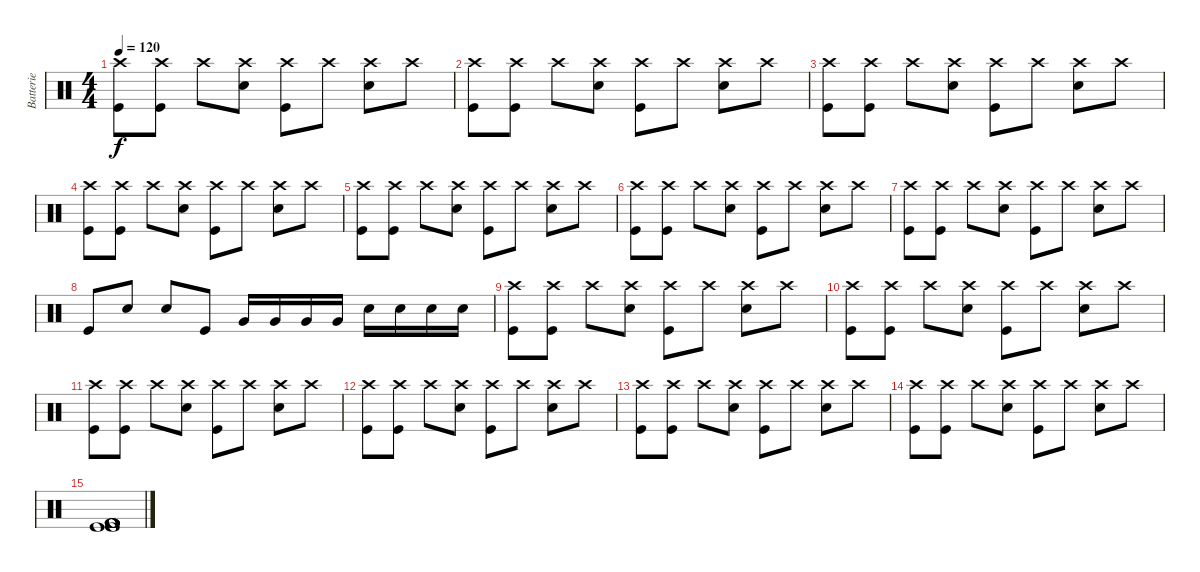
\track ("Batterie" "Batterie") {instrument percussion}
\staff {score}
\articulation defaults
\ts (4 4)
\tempo 120
\clef neutral
\ks c
("Crash high (hit)" "Kick (hit)").8{dy f} ("Crash high (hit)" "Kick (hit)").8 "Crash high (hit)".8 ("Crash high (hit)" "Snare (hit) 2").8 ("Crash high (hit)" "Kick (hit)").8 "Crash high (hit)".8 ("Crash high (hit)" "Snare (hit) 2").8 "Crash high (hit)".8 |
("Crash high (hit)" "Kick (hit)").8 ("Crash high (hit)" "Kick (hit)").8 "Crash high (hit)".8 ("Crash high (hit)" "Snare (hit) 2").8 ("Crash high (hit)" "Kick (hit)").8 "Crash high (hit)".8 ("Crash high (hit)" "Snare (hit) 2").8 "Crash high (hit)".8 |
("Crash high (hit)" "Kick (hit)").8 ("Crash high (hit)" "Kick (hit)").8 "Crash high (hit)".8 ("Crash high (hit)" "Snare (hit) 2").8 ("Crash high (hit)" "Kick (hit)").8 "Crash high (hit)".8 ("Crash high (hit)" "Snare (hit) 2").8 "Crash high (hit)".8 |
("Crash high (hit)" "Kick (hit)").8 ("Crash high (hit)" "Kick (hit)").8 "Crash high (hit)".8 ("Crash high (hit)" "Snare (hit) 2").8 ("Crash high (hit)" "Kick (hit)").8 "Crash high (hit)".8 ("Crash high (hit)" "Snare (hit) 2").8 "Crash high (hit)".8 |
("Crash high (hit)" "Kick (hit)").8 ("Crash high (hit)" "Kick (hit)").8 "Crash high (hit)".8 ("Crash high (hit)" "Snare (hit) 2").8 ("Crash high (hit)" "Kick (hit)").8 "Crash high (hit)".8 ("Crash high (hit)" "Snare (hit) 2").8 "Crash high (hit)".8 |
("Crash high (hit)" "Kick (hit)").8 ("Crash high (hit)" "Kick (hit)").8 "Crash high (hit)".8 ("Crash high (hit)" "Snare (hit) 2").8 ("Crash high (hit)" "Kick (hit)").8 "Crash high (hit)".8 ("Crash high (hit)" "Snare (hit) 2").8 "Crash high (hit)".8 |
("Crash high (hit)" "Kick (hit)").8 ("Crash high (hit)" "Kick (hit)").8 "Crash high (hit)".8 ("Crash high (hit)" "Snare (hit) 2").8 ("Crash high (hit)" "Kick (hit)").8 "Crash high (hit)".8 ("Crash high (hit)" "Snare (hit) 2").8 "Crash high (hit)".8 |
"Kick (hit)".8 "Snare (hit) 2".8 "Snare (hit) 2".8 "Kick (hit)".8 "Very Low Tom (hit)".16 "Very Low Tom (hit)".16 "Very Low Tom (hit)".16 "Very Low Tom (hit)".16 "Electric Snare (hit)".16 "Electric Snare (hit)".16 "Electric Snare (hit)".16 "Electric Snare (hit)".16 |
("Crash high (hit)" "Kick (hit)").8 ("Crash high (hit)" "Kick (hit)").8 "Crash high (hit)".8 ("Crash high (hit)" "Snare (hit) 2").8 ("Crash high (hit)" "Kick (hit)").8 "Crash high (hit)".8 ("Crash high (hit)" "Snare (hit) 2").8 "Crash high (hit)".8 |
("Crash high (hit)" "Kick (hit)").8 ("Crash high (hit)" "Kick (hit)").8 "Crash high (hit)".8 ("Crash high (hit)" "Snare (hit) 2").8 ("Crash high (hit)" "Kick (hit)").8 "Crash high (hit)".8 ("Crash high (hit)" "Snare (hit) 2").8 "Crash high (hit)".8 |
("Crash high (hit)" "Kick (hit)").8 ("Crash high (hit)" "Kick (hit)").8 "Crash high (hit)".8 ("Crash high (hit)" "Snare (hit) 2").8 ("Crash high (hit)" "Kick (hit)").8 "Crash high (hit)".8 ("Crash high (hit)" "Snare (hit) 2").8 "Crash high (hit)".8 |
("Crash high (hit)" "Kick (hit)").8 ("Crash high (hit)" "Kick (hit)").8 "Crash high (hit)".8 ("Crash high (hit)" "Snare (hit) 2").8 ("Crash high (hit)" "Kick (hit)").8 "Crash high (hit)".8 ("Crash high (hit)" "Snare (hit) 2").8 "Crash high (hit)".8 |
("Crash high (hit)" "Kick (hit)").8 ("Crash high (hit)" "Kick (hit)").8 "Crash high (hit)".8 ("Crash high (hit)" "Snare (hit) 2").8 ("Crash high (hit)" "Kick (hit)").8 "Crash high (hit)".8 ("Crash high (hit)" "Snare (hit) 2").8 "Crash high (hit)".8 |
("Crash high (hit)" "Kick (hit)").8 ("Crash high (hit)" "Kick (hit)").8 "Crash high (hit)".8 ("Crash high (hit)" "Snare (hit) 2").8 ("Crash high (hit)" "Kick (hit)").8 "Crash high (hit)".8 ("Crash high (hit)" "Snare (hit) 2").8 "Crash high (hit)".8 |
("Kick (hit) 2" "Kick (hit) 2" "Kick (hit)" "Kick (hit) 2" "Kick (hit)" "Kick (hit) 2").1
